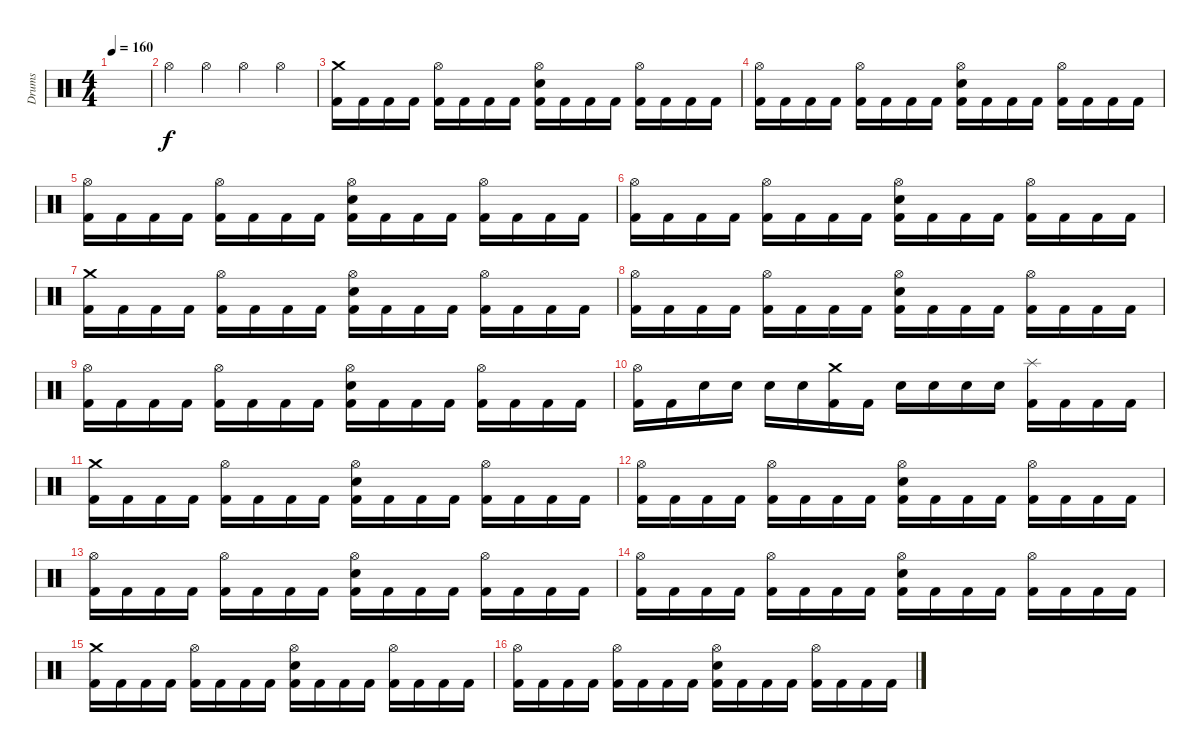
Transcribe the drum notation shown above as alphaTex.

\track ("Drums" "Drums") {instrument percussion}
\staff {score}
\articulation defaults
\ts (4 4)
\tempo 160
\clef neutral
\ks c
|
"Hi-Hat (open)".4 "Hi-Hat (open)".4 "Hi-Hat (open)".4 "Hi-Hat (open)".4 |
("Crash medium (hit)" "Kick (hit) 2").16 "Kick (hit) 2".16 "Kick (hit) 2".16 "Kick (hit) 2".16 ("Hi-Hat (open)" "Kick (hit) 2").16 "Kick (hit) 2".16 "Kick (hit) 2".16 "Kick (hit) 2".16 ("Hi-Hat (open)" "Snare (hit) 2" "Kick (hit) 2").16 "Kick (hit) 2".16 "Kick (hit) 2".16 "Kick (hit) 2".16 ("Hi-Hat (open)" "Kick (hit) 2").16 "Kick (hit) 2".16 "Kick (hit) 2".16 "Kick (hit) 2".16 |
("Hi-Hat (open)" "Kick (hit) 2").16 "Kick (hit) 2".16 "Kick (hit) 2".16 "Kick (hit) 2".16 ("Hi-Hat (open)" "Kick (hit) 2").16 "Kick (hit) 2".16 "Kick (hit) 2".16 "Kick (hit) 2".16 ("Hi-Hat (open)" "Snare (hit) 2" "Kick (hit) 2").16 "Kick (hit) 2".16 "Kick (hit) 2".16 "Kick (hit) 2".16 ("Hi-Hat (open)" "Kick (hit) 2").16 "Kick (hit) 2".16 "Kick (hit) 2".16 "Kick (hit) 2".16 |
("Hi-Hat (open)" "Kick (hit) 2").16 "Kick (hit) 2".16 "Kick (hit) 2".16 "Kick (hit) 2".16 ("Hi-Hat (open)" "Kick (hit) 2").16 "Kick (hit) 2".16 "Kick (hit) 2".16 "Kick (hit) 2".16 ("Hi-Hat (open)" "Snare (hit) 2" "Kick (hit) 2").16 "Kick (hit) 2".16 "Kick (hit) 2".16 "Kick (hit) 2".16 ("Hi-Hat (open)" "Kick (hit) 2").16 "Kick (hit) 2".16 "Kick (hit) 2".16 "Kick (hit) 2".16 |
("Hi-Hat (open)" "Kick (hit) 2").16 "Kick (hit) 2".16 "Kick (hit) 2".16 "Kick (hit) 2".16 ("Hi-Hat (open)" "Kick (hit) 2").16 "Kick (hit) 2".16 "Kick (hit) 2".16 "Kick (hit) 2".16 ("Hi-Hat (open)" "Snare (hit) 2" "Kick (hit) 2").16 "Kick (hit) 2".16 "Kick (hit) 2".16 "Kick (hit) 2".16 ("Hi-Hat (open)" "Kick (hit) 2").16 "Kick (hit) 2".16 "Kick (hit) 2".16 "Kick (hit) 2".16 |
("Crash medium (hit)" "Kick (hit) 2").16 "Kick (hit) 2".16 "Kick (hit) 2".16 "Kick (hit) 2".16 ("Hi-Hat (open)" "Kick (hit) 2").16 "Kick (hit) 2".16 "Kick (hit) 2".16 "Kick (hit) 2".16 ("Hi-Hat (open)" "Snare (hit) 2" "Kick (hit) 2").16 "Kick (hit) 2".16 "Kick (hit) 2".16 "Kick (hit) 2".16 ("Hi-Hat (open)" "Kick (hit) 2").16 "Kick (hit) 2".16 "Kick (hit) 2".16 "Kick (hit) 2".16 |
("Hi-Hat (open)" "Kick (hit) 2").16 "Kick (hit) 2".16 "Kick (hit) 2".16 "Kick (hit) 2".16 ("Hi-Hat (open)" "Kick (hit) 2").16 "Kick (hit) 2".16 "Kick (hit) 2".16 "Kick (hit) 2".16 ("Hi-Hat (open)" "Snare (hit) 2" "Kick (hit) 2").16 "Kick (hit) 2".16 "Kick (hit) 2".16 "Kick (hit) 2".16 ("Hi-Hat (open)" "Kick (hit) 2").16 "Kick (hit) 2".16 "Kick (hit) 2".16 "Kick (hit) 2".16 |
("Hi-Hat (open)" "Kick (hit) 2").16 "Kick (hit) 2".16 "Kick (hit) 2".16 "Kick (hit) 2".16 ("Hi-Hat (open)" "Kick (hit) 2").16 "Kick (hit) 2".16 "Kick (hit) 2".16 "Kick (hit) 2".16 ("Hi-Hat (open)" "Snare (hit) 2" "Kick (hit) 2").16 "Kick (hit) 2".16 "Kick (hit) 2".16 "Kick (hit) 2".16 ("Hi-Hat (open)" "Kick (hit) 2").16 "Kick (hit) 2".16 "Kick (hit) 2".16 "Kick (hit) 2".16 |
("Hi-Hat (open)" "Kick (hit) 2").16 "Kick (hit) 2".16 "Snare (hit) 2".16 "Snare (hit) 2".16 "Snare (hit) 2".16 "Snare (hit) 2".16 ("Crash medium (hit)" "Kick (hit) 2").16 "Kick (hit) 2".16 "Snare (hit) 2".16 "Snare (hit) 2".16 "Snare (hit) 2".16 "Snare (hit) 2".16 ("Splash (hit)" "Kick (hit) 2").16 "Kick (hit) 2".16 "Kick (hit) 2".16 "Kick (hit) 2".16 |
("Crash medium (hit)" "Kick (hit) 2").16 "Kick (hit) 2".16 "Kick (hit) 2".16 "Kick (hit) 2".16 ("Hi-Hat (open)" "Kick (hit) 2").16 "Kick (hit) 2".16 "Kick (hit) 2".16 "Kick (hit) 2".16 ("Hi-Hat (open)" "Snare (hit) 2" "Kick (hit) 2").16 "Kick (hit) 2".16 "Kick (hit) 2".16 "Kick (hit) 2".16 ("Hi-Hat (open)" "Kick (hit) 2").16 "Kick (hit) 2".16 "Kick (hit) 2".16 "Kick (hit) 2".16 |
("Hi-Hat (open)" "Kick (hit) 2").16 "Kick (hit) 2".16 "Kick (hit) 2".16 "Kick (hit) 2".16 ("Hi-Hat (open)" "Kick (hit) 2").16 "Kick (hit) 2".16 "Kick (hit) 2".16 "Kick (hit) 2".16 ("Hi-Hat (open)" "Snare (hit) 2" "Kick (hit) 2").16 "Kick (hit) 2".16 "Kick (hit) 2".16 "Kick (hit) 2".16 ("Hi-Hat (open)" "Kick (hit) 2").16 "Kick (hit) 2".16 "Kick (hit) 2".16 "Kick (hit) 2".16 |
("Hi-Hat (open)" "Kick (hit) 2").16 "Kick (hit) 2".16 "Kick (hit) 2".16 "Kick (hit) 2".16 ("Hi-Hat (open)" "Kick (hit) 2").16 "Kick (hit) 2".16 "Kick (hit) 2".16 "Kick (hit) 2".16 ("Hi-Hat (open)" "Snare (hit) 2" "Kick (hit) 2").16 "Kick (hit) 2".16 "Kick (hit) 2".16 "Kick (hit) 2".16 ("Hi-Hat (open)" "Kick (hit) 2").16 "Kick (hit) 2".16 "Kick (hit) 2".16 "Kick (hit) 2".16 |
("Hi-Hat (open)" "Kick (hit) 2").16 "Kick (hit) 2".16 "Kick (hit) 2".16 "Kick (hit) 2".16 ("Hi-Hat (open)" "Kick (hit) 2").16 "Kick (hit) 2".16 "Kick (hit) 2".16 "Kick (hit) 2".16 ("Hi-Hat (open)" "Snare (hit) 2" "Kick (hit) 2").16 "Kick (hit) 2".16 "Kick (hit) 2".16 "Kick (hit) 2".16 ("Hi-Hat (open)" "Kick (hit) 2").16 "Kick (hit) 2".16 "Kick (hit) 2".16 "Kick (hit) 2".16 |
("Crash medium (hit)" "Kick (hit) 2").16 "Kick (hit) 2".16 "Kick (hit) 2".16 "Kick (hit) 2".16 ("Hi-Hat (open)" "Kick (hit) 2").16 "Kick (hit) 2".16 "Kick (hit) 2".16 "Kick (hit) 2".16 ("Hi-Hat (open)" "Snare (hit) 2" "Kick (hit) 2").16 "Kick (hit) 2".16 "Kick (hit) 2".16 "Kick (hit) 2".16 ("Hi-Hat (open)" "Kick (hit) 2").16 "Kick (hit) 2".16 "Kick (hit) 2".16 "Kick (hit) 2".16 |
("Hi-Hat (open)" "Kick (hit) 2").16 "Kick (hit) 2".16 "Kick (hit) 2".16 "Kick (hit) 2".16 ("Hi-Hat (open)" "Kick (hit) 2").16 "Kick (hit) 2".16 "Kick (hit) 2".16 "Kick (hit) 2".16 ("Hi-Hat (open)" "Snare (hit) 2" "Kick (hit) 2").16 "Kick (hit) 2".16 "Kick (hit) 2".16 "Kick (hit) 2".16 ("Hi-Hat (open)" "Kick (hit) 2").16 "Kick (hit) 2".16 "Kick (hit) 2".16 "Kick (hit) 2".16
